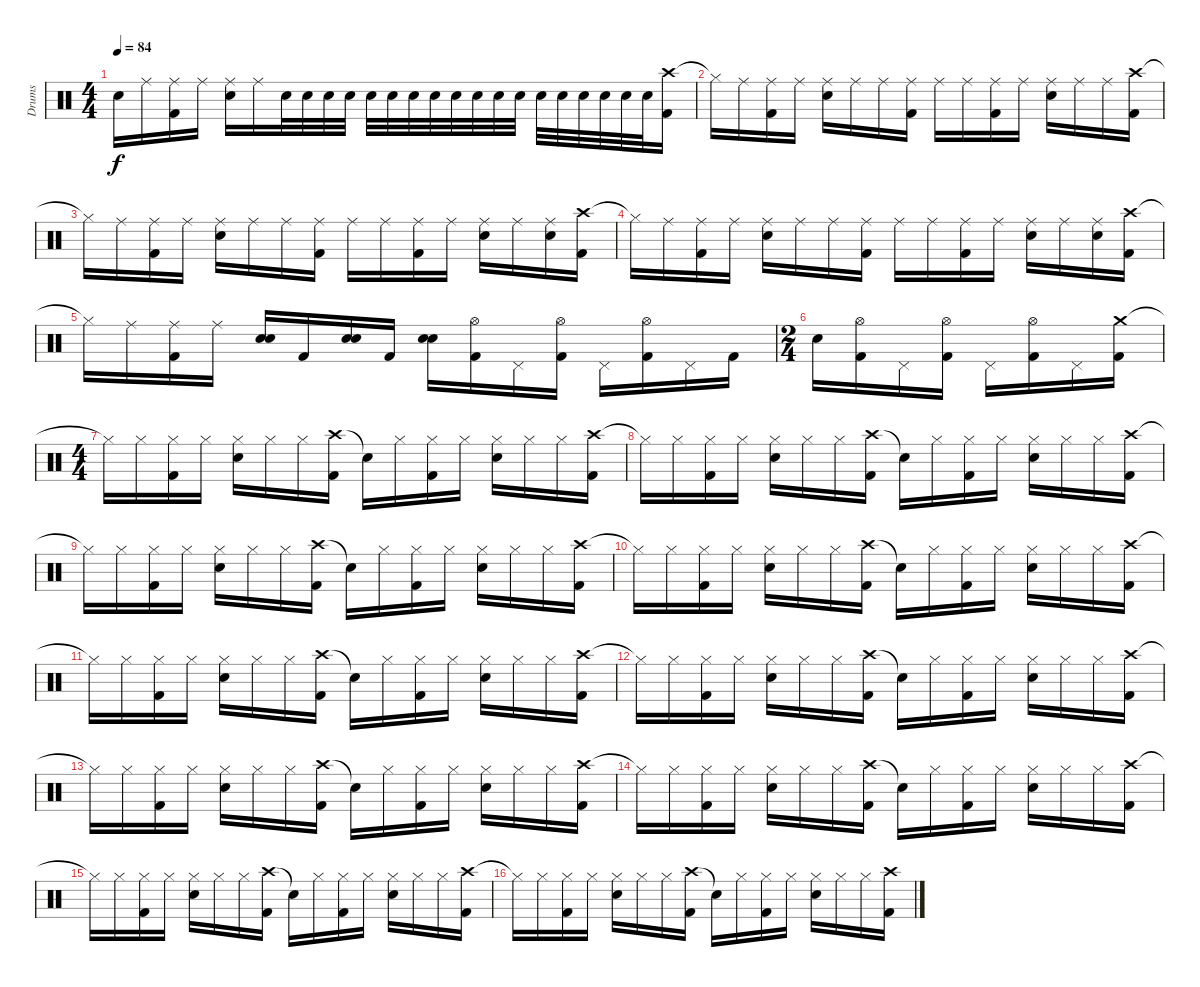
\track ("Drums" "Drums") {instrument percussion}
\staff {score}
\articulation defaults
\ts (4 4)
\tempo 84
\clef neutral
\ks c "Snare (hit)"{t}.16{dy f} "Ride (middle)".16
("Ride (middle)" "Kick (hit) 2").16 "Ride (middle)".16 ("Ride (middle)" "Snare (hit) 2").16 "Ride (middle)".16 "Snare (hit) 2".32 "Snare (hit) 2".32 "Snare (hit) 2".32 "Snare (hit) 2".32 "Snare (hit) 2".32 "Snare (hit) 2".32 "Snare (hit) 2".32 "Snare (hit) 2".32 "Snare (hit) 2".32 "Snare (hit) 2".32 "Snare (hit) 2".32 "Snare (hit) 2".32 "Snare (hit) 2".32 "Snare (hit) 2".32 "Snare (hit) 2".32 "Snare (hit) 2".32 "Snare (hit) 2".32 "Snare (hit) 2".32 ("Crash high (hit)" "Kick (hit) 2").16 |
"Hi-Hat (closed)"{t}.16 "Ride (middle)".16 ("Ride (middle)" "Kick (hit) 2").16 "Ride (middle)".16 ("Ride (middle)" "Snare (hit) 2").16 "Ride (middle)".16 "Ride (middle)".16 ("Ride (middle)" "Kick (hit) 2").16 "Ride (middle)".16 "Ride (middle)".16 ("Ride (middle)" "Kick (hit) 2").16 "Ride (middle)".16 ("Ride (middle)" "Snare (hit) 2").16 "Ride (middle)".16 "Ride (middle)".16 ("Crash high (hit)" "Kick (hit) 2").16 |
"Hi-Hat (closed)"{t}.16 "Ride (middle)".16 ("Ride (middle)" "Kick (hit) 2").16 "Ride (middle)".16 ("Ride (middle)" "Snare (hit) 2").16 "Ride (middle)".16 "Ride (middle)".16 ("Ride (middle)" "Kick (hit) 2").16 "Ride (middle)".16 "Ride (middle)".16 ("Ride (middle)" "Kick (hit) 2").16 "Ride (middle)".16 ("Ride (middle)" "Snare (hit) 2").16 "Ride (middle)".16 ("Ride (middle)" "Snare (hit) 2").16 ("Crash high (hit)" "Kick (hit) 2").16 |
"Hi-Hat (closed)"{t}.16 "Ride (middle)".16 ("Ride (middle)" "Kick (hit) 2").16 "Ride (middle)".16 ("Ride (middle)" "Snare (hit) 2").16 "Ride (middle)".16 "Ride (middle)".16 ("Ride (middle)" "Kick (hit) 2").16 "Ride (middle)".16 "Ride (middle)".16 ("Ride (middle)" "Kick (hit) 2").16 "Ride (middle)".16 ("Ride (middle)" "Snare (hit) 2").16 "Ride (middle)".16 ("Ride (middle)" "Snare (hit) 2").16 ("Crash high (hit)" "Kick (hit) 2").16 |
"Hi-Hat (closed)"{t}.16 "Ride (middle)".16 ("Ride (middle)" "Kick (hit) 2").16 "Ride (middle)".16 ("Snare (hit) 2" "Snare (hit) 2").16 "Kick (hit) 2".16 ("Snare (hit) 2" "Snare (hit) 2").16 "Kick (hit) 2".16 ("Snare (hit) 2" "Snare (hit) 2").16 ("Hi-Hat (open)" "Kick (hit) 2").16 "Pedal Hi-Hat (hit)".16 ("Hi-Hat (open)" "Kick (hit) 2").16 "Pedal Hi-Hat (hit)".16 ("Hi-Hat (open)" "Kick (hit) 2").16 "Pedal Hi-Hat (hit)".16 "Kick (hit) 2".16 |
\ts (2 4)
"Snare (hit) 2".16 ("Hi-Hat (open)" "Kick (hit) 2").16 "Pedal Hi-Hat (hit)".16 ("Hi-Hat (open)" "Kick (hit) 2").16 "Pedal Hi-Hat (hit)".16 ("Hi-Hat (open)" "Kick (hit) 2").16 "Pedal Hi-Hat (hit)".16 ("Crash medium (hit)" "Kick (hit) 2").16 |
\ts (4 4)
"Hi-Hat (closed)"{t}.16 "Hi-Hat (closed)".16 ("Hi-Hat (closed)" "Kick (hit) 2").16 "Hi-Hat (closed)".16 ("Hi-Hat (closed)" "Snare (hit) 2").16 "Hi-Hat (closed)".16 "Hi-Hat (closed)".16 ("Crash high (hit)" "Kick (hit) 2").16 "Snare (hit) 2"{t}.16 "Hi-Hat (closed)".16 ("Hi-Hat (closed)" "Kick (hit) 2").16 "Hi-Hat (closed)".16 ("Hi-Hat (closed)" "Snare (hit) 2").16 "Hi-Hat (closed)".16 "Hi-Hat (closed)".16 ("Crash high (hit)" "Kick (hit) 2").16 |
"Hi-Hat (closed)"{t}.16 "Hi-Hat (closed)".16 ("Hi-Hat (closed)" "Kick (hit) 2").16 "Hi-Hat (closed)".16 ("Hi-Hat (closed)" "Snare (hit) 2").16 "Hi-Hat (closed)".16 "Hi-Hat (closed)".16 ("Crash high (hit)" "Kick (hit) 2").16 "Snare (hit) 2"{t}.16 "Hi-Hat (closed)".16 ("Hi-Hat (closed)" "Kick (hit) 2").16 "Hi-Hat (closed)".16 ("Hi-Hat (closed)" "Snare (hit) 2").16 "Hi-Hat (closed)".16 "Hi-Hat (closed)".16 ("Crash high (hit)" "Kick (hit) 2").16 |
"Hi-Hat (closed)"{t}.16 "Hi-Hat (closed)".16 ("Hi-Hat (closed)" "Kick (hit) 2").16 "Hi-Hat (closed)".16 ("Hi-Hat (closed)" "Snare (hit) 2").16 "Hi-Hat (closed)".16 "Hi-Hat (closed)".16 ("Crash high (hit)" "Kick (hit) 2").16 "Snare (hit) 2"{t}.16 "Hi-Hat (closed)".16 ("Hi-Hat (closed)" "Kick (hit) 2").16 "Hi-Hat (closed)".16 ("Hi-Hat (closed)" "Snare (hit) 2").16 "Hi-Hat (closed)".16 "Hi-Hat (closed)".16 ("Crash high (hit)" "Kick (hit) 2").16 |
"Hi-Hat (closed)"{t}.16 "Hi-Hat (closed)".16 ("Hi-Hat (closed)" "Kick (hit) 2").16 "Hi-Hat (closed)".16 ("Hi-Hat (closed)" "Snare (hit) 2").16 "Hi-Hat (closed)".16 "Hi-Hat (closed)".16 ("Crash high (hit)" "Kick (hit) 2").16 "Snare (hit) 2"{t}.16 "Hi-Hat (closed)".16 ("Hi-Hat (closed)" "Kick (hit) 2").16 "Hi-Hat (closed)".16 ("Hi-Hat (closed)" "Snare (hit) 2").16 "Hi-Hat (closed)".16 "Hi-Hat (closed)".16 ("Crash high (hit)" "Kick (hit) 2").16 |
"Hi-Hat (closed)"{t}.16 "Hi-Hat (closed)".16 ("Hi-Hat (closed)" "Kick (hit) 2").16 "Hi-Hat (closed)".16 ("Hi-Hat (closed)" "Snare (hit) 2").16 "Hi-Hat (closed)".16 "Hi-Hat (closed)".16 ("Crash high (hit)" "Kick (hit) 2").16 "Snare (hit) 2"{t}.16 "Hi-Hat (closed)".16 ("Hi-Hat (closed)" "Kick (hit) 2").16 "Hi-Hat (closed)".16 ("Hi-Hat (closed)" "Snare (hit) 2").16 "Hi-Hat (closed)".16 "Hi-Hat (closed)".16 ("Crash high (hit)" "Kick (hit) 2").16 |
"Hi-Hat (closed)"{t}.16 "Hi-Hat (closed)".16 ("Hi-Hat (closed)" "Kick (hit) 2").16 "Hi-Hat (closed)".16 ("Hi-Hat (closed)" "Snare (hit) 2").16 "Hi-Hat (closed)".16 "Hi-Hat (closed)".16 ("Crash high (hit)" "Kick (hit) 2").16 "Snare (hit) 2"{t}.16 "Hi-Hat (closed)".16 ("Hi-Hat (closed)" "Kick (hit) 2").16 "Hi-Hat (closed)".16 ("Hi-Hat (closed)" "Snare (hit) 2").16 "Hi-Hat (closed)".16 "Hi-Hat (closed)".16 ("Crash high (hit)" "Kick (hit) 2").16 |
"Hi-Hat (closed)"{t}.16 "Hi-Hat (closed)".16 ("Hi-Hat (closed)" "Kick (hit) 2").16 "Hi-Hat (closed)".16 ("Hi-Hat (closed)" "Snare (hit) 2").16 "Hi-Hat (closed)".16 "Hi-Hat (closed)".16 ("Crash high (hit)" "Kick (hit) 2").16 "Snare (hit) 2"{t}.16 "Hi-Hat (closed)".16 ("Hi-Hat (closed)" "Kick (hit) 2").16 "Hi-Hat (closed)".16 ("Hi-Hat (closed)" "Snare (hit) 2").16 "Hi-Hat (closed)".16 "Hi-Hat (closed)".16 ("Crash high (hit)" "Kick (hit) 2").16 |
"Hi-Hat (closed)"{t}.16 "Hi-Hat (closed)".16 ("Hi-Hat (closed)" "Kick (hit) 2").16 "Hi-Hat (closed)".16 ("Hi-Hat (closed)" "Snare (hit) 2").16 "Hi-Hat (closed)".16 "Hi-Hat (closed)".16 ("Crash high (hit)" "Kick (hit) 2").16 "Snare (hit) 2"{t}.16 "Hi-Hat (closed)".16 ("Hi-Hat (closed)" "Kick (hit) 2").16 "Hi-Hat (closed)".16 ("Hi-Hat (closed)" "Snare (hit) 2").16 "Hi-Hat (closed)".16 "Hi-Hat (closed)".16 ("Crash high (hit)" "Kick (hit) 2").16 |
"Hi-Hat (closed)"{t}.16 "Hi-Hat (closed)".16 ("Hi-Hat (closed)" "Kick (hit) 2").16 "Hi-Hat (closed)".16 ("Hi-Hat (closed)" "Snare (hit) 2").16 "Hi-Hat (closed)".16 "Hi-Hat (closed)".16 ("Crash high (hit)" "Kick (hit) 2").16 "Snare (hit) 2"{t}.16 "Hi-Hat (closed)".16 ("Hi-Hat (closed)" "Kick (hit) 2").16 "Hi-Hat (closed)".16 ("Hi-Hat (closed)" "Snare (hit) 2").16 "Hi-Hat (closed)".16 "Hi-Hat (closed)".16 ("Crash high (hit)" "Kick (hit) 2").16 |
"Hi-Hat (closed)"{t}.16 "Hi-Hat (closed)".16 ("Hi-Hat (closed)" "Kick (hit) 2").16 "Hi-Hat (closed)".16 ("Hi-Hat (closed)" "Snare (hit) 2").16 "Hi-Hat (closed)".16 "Hi-Hat (closed)".16 ("Crash high (hit)" "Kick (hit) 2").16 "Snare (hit) 2"{t}.16 "Hi-Hat (closed)".16 ("Hi-Hat (closed)" "Kick (hit) 2").16 "Hi-Hat (closed)".16 ("Hi-Hat (closed)" "Snare (hit) 2").16 "Hi-Hat (closed)".16 "Hi-Hat (closed)".16 ("Crash high (hit)" "Kick (hit) 2").16
